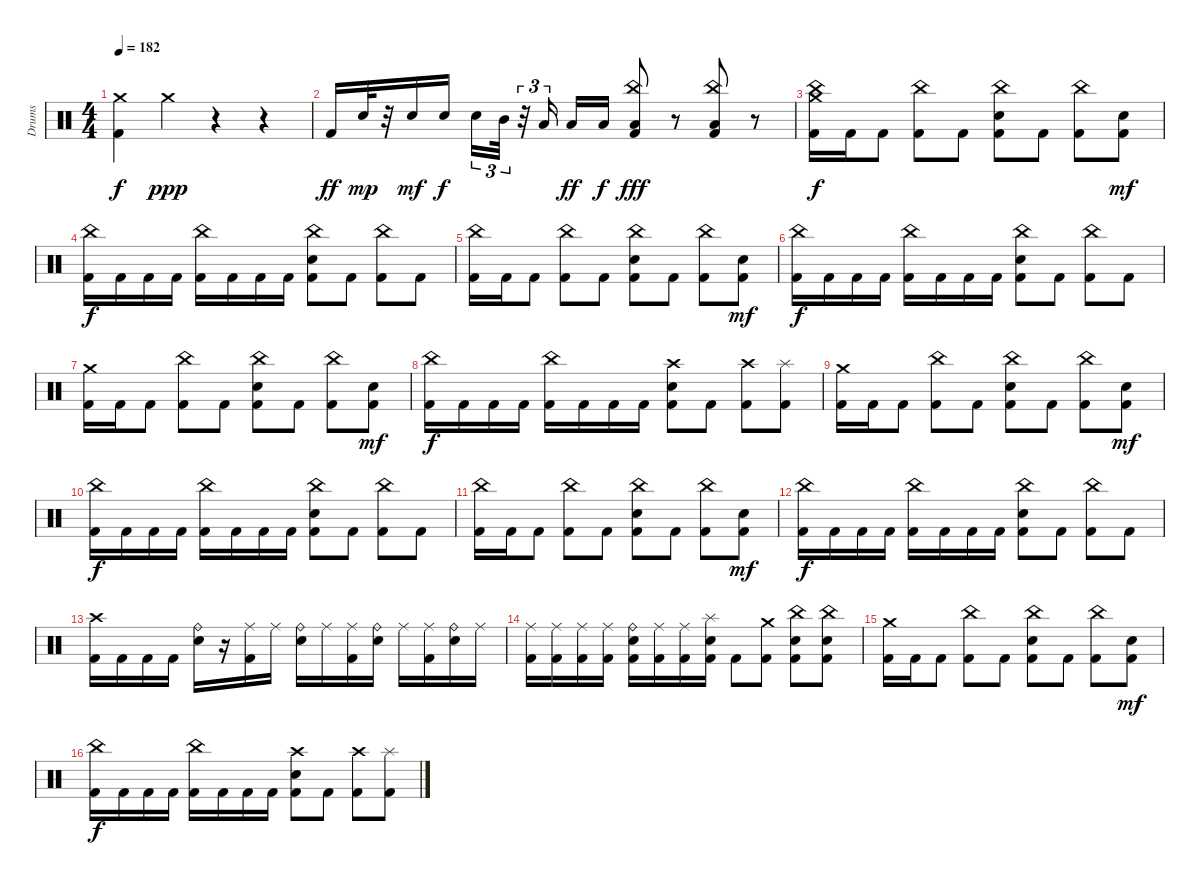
\track ("Drums" "Drums") {instrument percussion}
\staff {score}
\articulation defaults
\ts (4 4)
\tempo 182
\clef neutral
\ks c
("Crash medium (hit)" "Kick (hit) 2").4{dy f} "Crash medium (hit)".4{dy ppp} r.4 r.4 |
"Kick (hit) 2".16{dy ff} "Electric Snare (hit)".32{dy mp} r.32 "Electric Snare (hit)".16{dy mf} "Electric Snare (hit)".16{dy f} "Electric Snare (hit)".16{tu (3 2)} "Mid Tom (hit)".32{tu (3 2)} r.32{tu (3 2)} "Low Tom (hit)".16{tu (3 2) beam splitsecondary} "Low Tom (hit)".16{dy ff} "Low Tom (hit)".16{dy f} ("China (hit)" "Low Floor Tom (hit)" "Kick (hit) 2").8{dy fff} r.8 ("China (hit)" "Low Floor Tom (hit)" "Kick (hit) 2").8 r.8 |
("Crash medium (hit)" "China (hit)" "Kick (hit) 2").16{dy f} "Kick (hit) 2".16 "Kick (hit) 2".8 ("China (hit)" "Kick (hit) 2").8 "Kick (hit) 2".8 ("China (hit)" "Electric Snare (hit)" "Kick (hit) 2").8 "Kick (hit) 2".8 ("China (hit)" "Kick (hit) 2").8 ("Electric Snare (hit)" "Kick (hit) 2").8{dy mf} |
("China (hit)" "Kick (hit) 2").16{dy f} "Kick (hit) 2".16 "Kick (hit) 2".16 "Kick (hit) 2".16 ("China (hit)" "Kick (hit) 2").16 "Kick (hit) 2".16 "Kick (hit) 2".16 "Kick (hit) 2".16 ("China (hit)" "Electric Snare (hit)" "Kick (hit) 2").8 "Kick (hit) 2".8 ("China (hit)" "Kick (hit) 2").8 "Kick (hit) 2".8 |
("China (hit)" "Kick (hit) 2").16 "Kick (hit) 2".16 "Kick (hit) 2".8 ("China (hit)" "Kick (hit) 2").8 "Kick (hit) 2".8 ("China (hit)" "Electric Snare (hit)" "Kick (hit) 2").8 "Kick (hit) 2".8 ("China (hit)" "Kick (hit) 2").8 ("Electric Snare (hit)" "Kick (hit) 2").8{dy mf} |
("China (hit)" "Kick (hit) 2").16{dy f} "Kick (hit) 2".16 "Kick (hit) 2".16 "Kick (hit) 2".16 ("China (hit)" "Kick (hit) 2").16 "Kick (hit) 2".16 "Kick (hit) 2".16 "Kick (hit) 2".16 ("China (hit)" "Electric Snare (hit)" "Kick (hit) 2").8 "Kick (hit) 2".8 ("China (hit)" "Kick (hit) 2").8 "Kick (hit) 2".8 |
("Crash medium (hit)" "Kick (hit) 2").16 "Kick (hit) 2".16 "Kick (hit) 2".8 ("China (hit)" "Kick (hit) 2").8 "Kick (hit) 2".8 ("China (hit)" "Electric Snare (hit)" "Kick (hit) 2").8 "Kick (hit) 2".8 ("China (hit)" "Kick (hit) 2").8 ("Electric Snare (hit)" "Kick (hit) 2").8{dy mf} |
("China (hit)" "Kick (hit) 2").16{dy f} "Kick (hit) 2".16 "Kick (hit) 2".16 "Kick (hit) 2".16 ("China (hit)" "Kick (hit) 2").16 "Kick (hit) 2".16 "Kick (hit) 2".16 "Kick (hit) 2".16 ("Crash high (hit)" "Electric Snare (hit)" "Kick (hit) 2").8 "Kick (hit) 2".8 ("Crash high (hit)" "Kick (hit) 2").8 ("Splash (hit)" "Kick (hit) 2").8 |
("Crash medium (hit)" "Kick (hit) 2").16 "Kick (hit) 2".16 "Kick (hit) 2".8 ("China (hit)" "Kick (hit) 2").8 "Kick (hit) 2".8 ("China (hit)" "Electric Snare (hit)" "Kick (hit) 2").8 "Kick (hit) 2".8 ("China (hit)" "Kick (hit) 2").8 ("Electric Snare (hit)" "Kick (hit) 2").8{dy mf} |
("China (hit)" "Kick (hit) 2").16{dy f} "Kick (hit) 2".16 "Kick (hit) 2".16 "Kick (hit) 2".16 ("China (hit)" "Kick (hit) 2").16 "Kick (hit) 2".16 "Kick (hit) 2".16 "Kick (hit) 2".16 ("China (hit)" "Electric Snare (hit)" "Kick (hit) 2").8 "Kick (hit) 2".8 ("China (hit)" "Kick (hit) 2").8 "Kick (hit) 2".8 |
("China (hit)" "Kick (hit) 2").16 "Kick (hit) 2".16 "Kick (hit) 2".8 ("China (hit)" "Kick (hit) 2").8 "Kick (hit) 2".8 ("China (hit)" "Electric Snare (hit)" "Kick (hit) 2").8 "Kick (hit) 2".8 ("China (hit)" "Kick (hit) 2").8 ("Electric Snare (hit)" "Kick (hit) 2").8{dy mf} |
("China (hit)" "Kick (hit) 2").16{dy f} "Kick (hit) 2".16 "Kick (hit) 2".16 "Kick (hit) 2".16 ("China (hit)" "Kick (hit) 2").16 "Kick (hit) 2".16 "Kick (hit) 2".16 "Kick (hit) 2".16 ("China (hit)" "Electric Snare (hit)" "Kick (hit) 2").8 "Kick (hit) 2".8 ("China (hit)" "Kick (hit) 2").8 "Kick (hit) 2".8 |
("Crash high (hit)" "Kick (hit) 2").16 "Kick (hit) 2".16 "Kick (hit) 2".16 "Kick (hit) 2".16 ("Ride (bell)" "Electric Snare (hit)").16 r.16 ("Ride (middle)" "Kick (hit) 2").16 "Ride (middle)".16 ("Ride (bell)" "Electric Snare (hit)").16 "Ride (middle)".16 ("Ride (middle)" "Kick (hit) 2").16 ("Ride (bell)" "Electric Snare (hit)").16 "Ride (middle)".16 ("Ride (middle)" "Kick (hit) 2").16 ("Ride (bell)" "Electric Snare (hit)").16 "Ride (middle)".16 |
("Ride (middle)" "Kick (hit) 2").16 ("Ride (middle)" "Kick (hit) 2").16 ("Ride (middle)" "Kick (hit) 2").16 ("Ride (middle)" "Kick (hit) 2").16 ("Ride (bell)" "Electric Snare (hit)" "Kick (hit) 2").16 ("Ride (middle)" "Kick (hit) 2").16 ("Ride (middle)" "Kick (hit) 2").16 ("Splash (hit)" "Electric Snare (hit)" "Kick (hit) 2").16 "Kick (hit) 2".8 ("Crash medium (hit)" "Kick (hit) 2").8 ("China (hit)" "Electric Snare (hit)" "Kick (hit) 2").8 ("China (hit)" "Electric Snare (hit)" "Kick (hit) 2").8 |
("Crash medium (hit)" "Kick (hit) 2").16 "Kick (hit) 2".16 "Kick (hit) 2".8 ("China (hit)" "Kick (hit) 2").8 "Kick (hit) 2".8 ("China (hit)" "Electric Snare (hit)" "Kick (hit) 2").8 "Kick (hit) 2".8 ("China (hit)" "Kick (hit) 2").8 ("Electric Snare (hit)" "Kick (hit) 2").8{dy mf} |
("China (hit)" "Kick (hit) 2").16{dy f} "Kick (hit) 2".16 "Kick (hit) 2".16 "Kick (hit) 2".16 ("China (hit)" "Kick (hit) 2").16 "Kick (hit) 2".16 "Kick (hit) 2".16 "Kick (hit) 2".16 ("Crash high (hit)" "Electric Snare (hit)" "Kick (hit) 2").8 "Kick (hit) 2".8 ("Crash high (hit)" "Kick (hit) 2").8 ("Splash (hit)" "Kick (hit) 2").8
